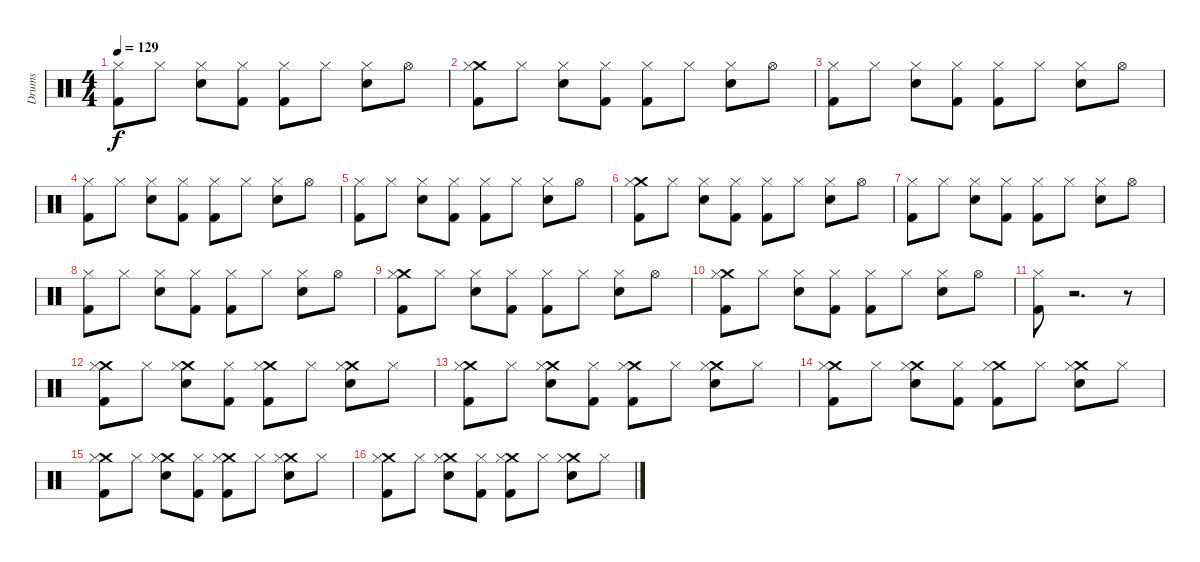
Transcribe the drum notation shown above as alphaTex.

\track ("Drums" "Drums") {instrument percussion}
\staff {score}
\articulation defaults
\ts (4 4)
\tempo 129
\clef neutral
\ks c
("Kick (hit) 2" "Hi-Hat (closed)").8{dy f} "Hi-Hat (closed)".8 ("Electric Snare (hit)" "Hi-Hat (closed)").8 ("Kick (hit) 2" "Hi-Hat (closed)").8 ("Kick (hit) 2" "Hi-Hat (closed)").8 "Hi-Hat (closed)".8 ("Electric Snare (hit)" "Hi-Hat (closed)").8 "Hi-Hat (open)".8 |
("Crash medium (hit)" "Kick (hit) 2" "Hi-Hat (closed)").8 "Hi-Hat (closed)".8 ("Electric Snare (hit)" "Hi-Hat (closed)").8 ("Kick (hit) 2" "Hi-Hat (closed)").8 ("Kick (hit) 2" "Hi-Hat (closed)").8 "Hi-Hat (closed)".8 ("Electric Snare (hit)" "Hi-Hat (closed)").8 "Hi-Hat (open)".8 |
("Kick (hit) 2" "Hi-Hat (closed)").8 "Hi-Hat (closed)".8 ("Electric Snare (hit)" "Hi-Hat (closed)").8 ("Kick (hit) 2" "Hi-Hat (closed)").8 ("Kick (hit) 2" "Hi-Hat (closed)").8 "Hi-Hat (closed)".8 ("Electric Snare (hit)" "Hi-Hat (closed)").8 "Hi-Hat (open)".8 |
("Kick (hit) 2" "Hi-Hat (closed)").8 "Hi-Hat (closed)".8 ("Electric Snare (hit)" "Hi-Hat (closed)").8 ("Kick (hit) 2" "Hi-Hat (closed)").8 ("Kick (hit) 2" "Hi-Hat (closed)").8 "Hi-Hat (closed)".8 ("Electric Snare (hit)" "Hi-Hat (closed)").8 "Hi-Hat (open)".8 |
("Kick (hit) 2" "Hi-Hat (closed)").8 "Hi-Hat (closed)".8 ("Electric Snare (hit)" "Hi-Hat (closed)").8 ("Kick (hit) 2" "Hi-Hat (closed)").8 ("Kick (hit) 2" "Hi-Hat (closed)").8 "Hi-Hat (closed)".8 ("Electric Snare (hit)" "Hi-Hat (closed)").8 "Hi-Hat (open)".8 |
("Crash medium (hit)" "Kick (hit) 2" "Hi-Hat (closed)").8 "Hi-Hat (closed)".8 ("Electric Snare (hit)" "Hi-Hat (closed)").8 ("Kick (hit) 2" "Hi-Hat (closed)").8 ("Kick (hit) 2" "Hi-Hat (closed)").8 "Hi-Hat (closed)".8 ("Electric Snare (hit)" "Hi-Hat (closed)").8 "Hi-Hat (open)".8 |
("Kick (hit) 2" "Hi-Hat (closed)").8 "Hi-Hat (closed)".8 ("Electric Snare (hit)" "Hi-Hat (closed)").8 ("Kick (hit) 2" "Hi-Hat (closed)").8 ("Kick (hit) 2" "Hi-Hat (closed)").8 "Hi-Hat (closed)".8 ("Electric Snare (hit)" "Hi-Hat (closed)").8 "Hi-Hat (open)".8 |
("Kick (hit) 2" "Hi-Hat (closed)").8 "Hi-Hat (closed)".8 ("Electric Snare (hit)" "Hi-Hat (closed)").8 ("Kick (hit) 2" "Hi-Hat (closed)").8 ("Kick (hit) 2" "Hi-Hat (closed)").8 "Hi-Hat (closed)".8 ("Electric Snare (hit)" "Hi-Hat (closed)").8 "Hi-Hat (open)".8 |
("Crash medium (hit)" "Kick (hit) 2" "Hi-Hat (closed)").8 "Hi-Hat (closed)".8 ("Electric Snare (hit)" "Hi-Hat (closed)").8 ("Kick (hit) 2" "Hi-Hat (closed)").8 ("Kick (hit) 2" "Hi-Hat (closed)").8 "Hi-Hat (closed)".8 ("Electric Snare (hit)" "Hi-Hat (closed)").8 "Hi-Hat (open)".8 |
("Crash medium (hit)" "Kick (hit) 2" "Hi-Hat (closed)").8 "Hi-Hat (closed)".8 ("Electric Snare (hit)" "Hi-Hat (closed)").8 ("Kick (hit) 2" "Hi-Hat (closed)").8 ("Kick (hit) 2" "Hi-Hat (closed)").8 "Hi-Hat (closed)".8 ("Electric Snare (hit)" "Hi-Hat (closed)").8 "Hi-Hat (open)".8 |
("Kick (hit) 2" "Hi-Hat (closed)").8 r.2{d} r.8 |
("Kick (hit) 2" "Crash medium (hit)" "Hi-Hat (closed)").8 "Hi-Hat (closed)".8 ("Crash medium (hit)" "Electric Snare (hit)" "Hi-Hat (closed)").8 ("Kick (hit) 2" "Hi-Hat (closed)").8 ("Crash medium (hit)" "Kick (hit) 2" "Hi-Hat (closed)").8 "Hi-Hat (closed)".8 ("Crash medium (hit)" "Electric Snare (hit)" "Hi-Hat (closed)").8 "Hi-Hat (closed)".8 |
("Kick (hit) 2" "Crash medium (hit)" "Hi-Hat (closed)").8 "Hi-Hat (closed)".8 ("Crash medium (hit)" "Electric Snare (hit)" "Hi-Hat (closed)").8 ("Kick (hit) 2" "Hi-Hat (closed)").8 ("Crash medium (hit)" "Kick (hit) 2" "Hi-Hat (closed)").8 "Hi-Hat (closed)".8 ("Crash medium (hit)" "Electric Snare (hit)" "Hi-Hat (closed)").8 "Hi-Hat (closed)".8 |
("Kick (hit) 2" "Crash medium (hit)" "Hi-Hat (closed)").8 "Hi-Hat (closed)".8 ("Crash medium (hit)" "Electric Snare (hit)" "Hi-Hat (closed)").8 ("Kick (hit) 2" "Hi-Hat (closed)").8 ("Crash medium (hit)" "Kick (hit) 2" "Hi-Hat (closed)").8 "Hi-Hat (closed)".8 ("Crash medium (hit)" "Electric Snare (hit)" "Hi-Hat (closed)").8 "Hi-Hat (closed)".8 |
("Kick (hit) 2" "Crash medium (hit)" "Hi-Hat (closed)").8 "Hi-Hat (closed)".8 ("Crash medium (hit)" "Electric Snare (hit)" "Hi-Hat (closed)").8 ("Kick (hit) 2" "Hi-Hat (closed)").8 ("Crash medium (hit)" "Kick (hit) 2" "Hi-Hat (closed)").8 "Hi-Hat (closed)".8 ("Crash medium (hit)" "Electric Snare (hit)" "Hi-Hat (closed)").8 "Hi-Hat (closed)".8 |
("Kick (hit) 2" "Crash medium (hit)" "Hi-Hat (closed)").8 "Hi-Hat (closed)".8 ("Crash medium (hit)" "Electric Snare (hit)" "Hi-Hat (closed)").8 ("Kick (hit) 2" "Hi-Hat (closed)").8 ("Crash medium (hit)" "Kick (hit) 2" "Hi-Hat (closed)").8 "Hi-Hat (closed)".8 ("Crash medium (hit)" "Electric Snare (hit)" "Hi-Hat (closed)").8 "Hi-Hat (closed)".8
